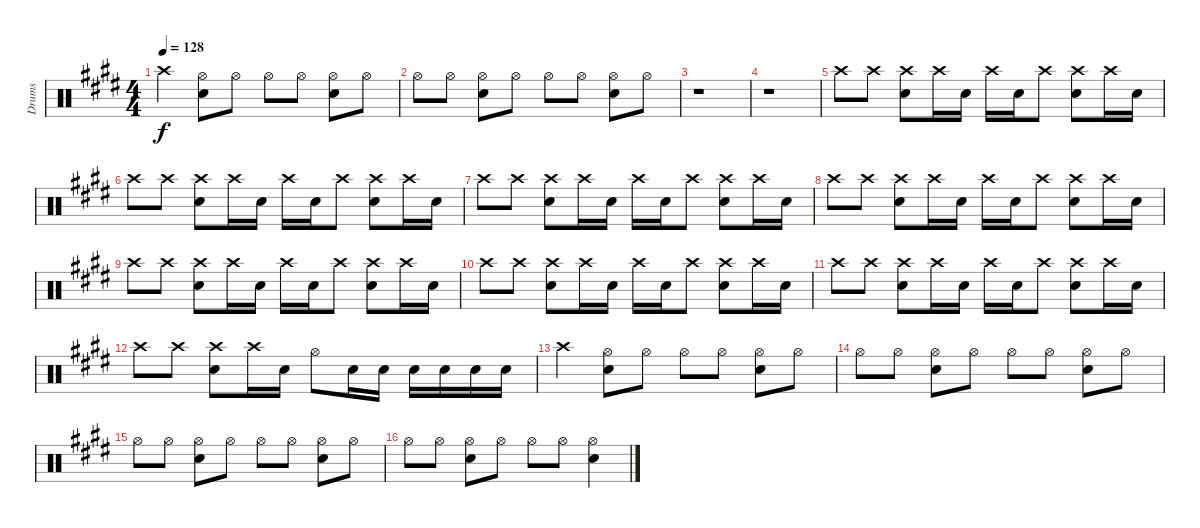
\track ("Drums" "Drums") {instrument percussion}
\staff {score}
\articulation defaults
\ts (4 4)
\tempo 128
\clef neutral
\ks e "Crash high (hit)".4{dy f}
("Hi-Hat (open)" "Snare (hit) 2").8 "Hi-Hat (open)".8 "Hi-Hat (open)".8 "Hi-Hat (open)".8 ("Hi-Hat (open)" "Snare (hit) 2").8 "Hi-Hat (open)".8 |
"Hi-Hat (open)".8 "Hi-Hat (open)".8 ("Hi-Hat (open)" "Snare (hit) 2").8 "Hi-Hat (open)".8 "Hi-Hat (open)".8 "Hi-Hat (open)".8 ("Hi-Hat (open)" "Snare (hit) 2").8 "Hi-Hat (open)".8 |
r.1 |
r.1 |
"Crash high (hit)".8 "Crash high (hit)".8 ("Crash high (hit)" "Snare (hit) 2").8 "Crash high (hit)".16 "Snare (hit) 2".16 "Crash high (hit)".16 "Snare (hit) 2".16 "Crash high (hit)".8 ("Crash high (hit)" "Snare (hit) 2").8 "Crash high (hit)".16 "Snare (hit) 2".16 |
"Crash high (hit)".8 "Crash high (hit)".8 ("Crash high (hit)" "Snare (hit) 2").8 "Crash high (hit)".16 "Snare (hit) 2".16 "Crash high (hit)".16 "Snare (hit) 2".16 "Crash high (hit)".8 ("Crash high (hit)" "Snare (hit) 2").8 "Crash high (hit)".16 "Snare (hit) 2".16 |
"Crash high (hit)".8 "Crash high (hit)".8 ("Crash high (hit)" "Snare (hit) 2").8 "Crash high (hit)".16 "Snare (hit) 2".16 "Crash high (hit)".16 "Snare (hit) 2".16 "Crash high (hit)".8 ("Crash high (hit)" "Snare (hit) 2").8 "Crash high (hit)".16 "Snare (hit) 2".16 |
"Crash high (hit)".8 "Crash high (hit)".8 ("Crash high (hit)" "Snare (hit) 2").8 "Crash high (hit)".16 "Snare (hit) 2".16 "Crash high (hit)".16 "Snare (hit) 2".16 "Crash high (hit)".8 ("Crash high (hit)" "Snare (hit) 2").8 "Crash high (hit)".16 "Snare (hit) 2".16 |
"Crash high (hit)".8 "Crash high (hit)".8 ("Crash high (hit)" "Snare (hit) 2").8 "Crash high (hit)".16 "Snare (hit) 2".16 "Crash high (hit)".16 "Snare (hit) 2".16 "Crash high (hit)".8 ("Crash high (hit)" "Snare (hit) 2").8 "Crash high (hit)".16 "Snare (hit) 2".16 |
"Crash high (hit)".8 "Crash high (hit)".8 ("Crash high (hit)" "Snare (hit) 2").8 "Crash high (hit)".16 "Snare (hit) 2".16 "Crash high (hit)".16 "Snare (hit) 2".16 "Crash high (hit)".8 ("Crash high (hit)" "Snare (hit) 2").8 "Crash high (hit)".16 "Snare (hit) 2".16 |
"Crash high (hit)".8 "Crash high (hit)".8 ("Crash high (hit)" "Snare (hit) 2").8 "Crash high (hit)".16 "Snare (hit) 2".16 "Crash high (hit)".16 "Snare (hit) 2".16 "Crash high (hit)".8 ("Crash high (hit)" "Snare (hit) 2").8 "Crash high (hit)".16 "Snare (hit) 2".16 |
"Crash high (hit)".8 "Crash high (hit)".8 ("Crash high (hit)" "Snare (hit) 2").8 "Crash high (hit)".16 "Snare (hit) 2".16 "Hi-Hat (open)".8 "Snare (hit) 2".16 "Snare (hit) 2".16 "Snare (hit) 2".16 "Snare (hit) 2".16 "Snare (hit) 2".16 "Snare (hit) 2".16 |
"Crash high (hit)".4 ("Hi-Hat (open)" "Snare (hit) 2").8 "Hi-Hat (open)".8 "Hi-Hat (open)".8 "Hi-Hat (open)".8 ("Hi-Hat (open)" "Snare (hit) 2").8 "Hi-Hat (open)".8 |
"Hi-Hat (open)".8 "Hi-Hat (open)".8 ("Hi-Hat (open)" "Snare (hit) 2").8 "Hi-Hat (open)".8 "Hi-Hat (open)".8 "Hi-Hat (open)".8 ("Hi-Hat (open)" "Snare (hit) 2").8 "Hi-Hat (open)".8 |
"Hi-Hat (open)".8 "Hi-Hat (open)".8 ("Hi-Hat (open)" "Snare (hit) 2").8 "Hi-Hat (open)".8 "Hi-Hat (open)".8 "Hi-Hat (open)".8 ("Hi-Hat (open)" "Snare (hit) 2").8 "Hi-Hat (open)".8 |
"Hi-Hat (open)".8 "Hi-Hat (open)".8 ("Hi-Hat (open)" "Snare (hit) 2").8 "Hi-Hat (open)".8 "Hi-Hat (open)".8 "Hi-Hat (open)".8 ("Hi-Hat (open)" "Snare (hit) 2").4
